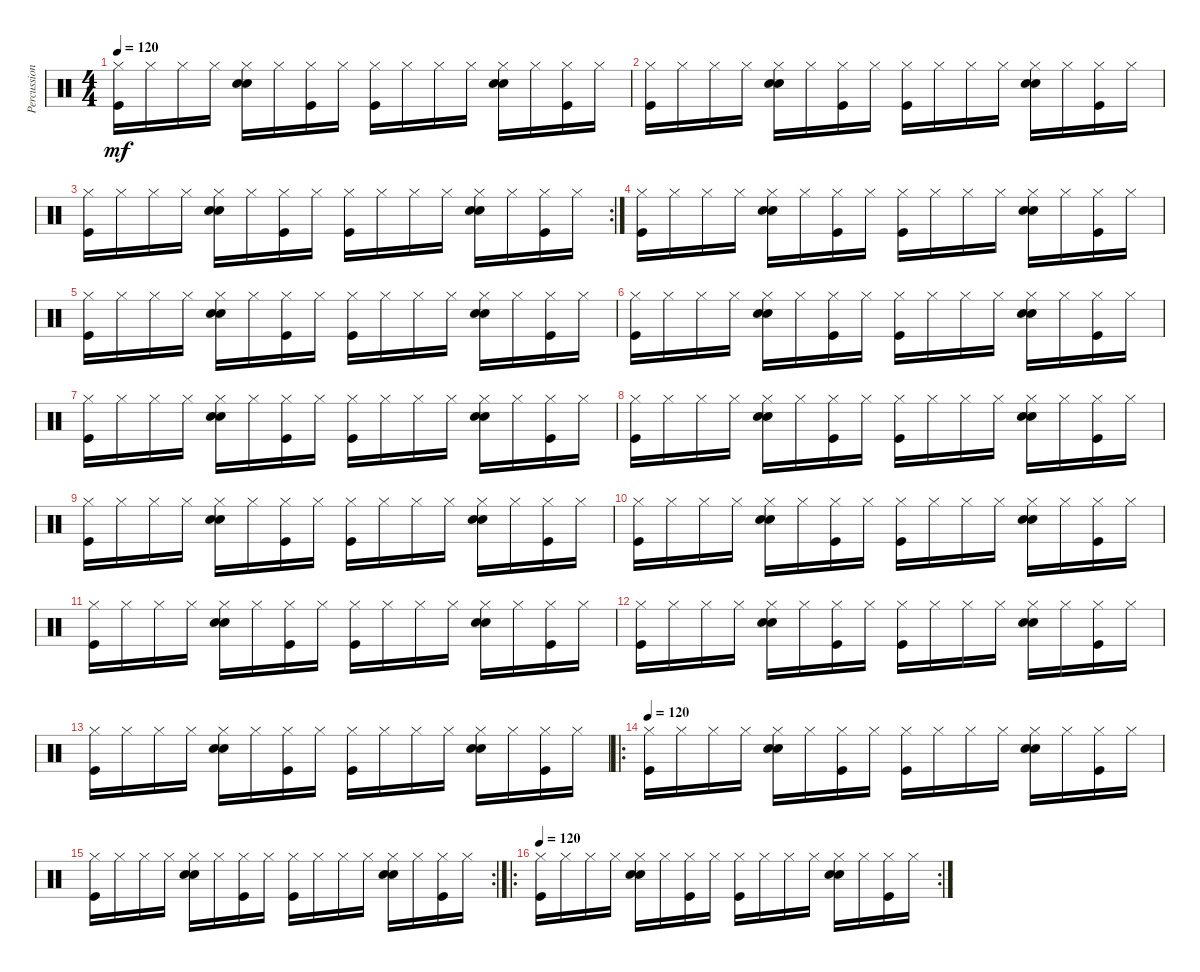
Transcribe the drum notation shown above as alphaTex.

\track ("Percussion" "Percussion") {instrument percussion}
\staff {score}
\articulation defaults
\ts (4 4)
\tempo 120
\clef neutral
\ks c
("Hi-Hat (closed)" "Kick (hit)").16{dy mf} "Hi-Hat (closed)".16 "Hi-Hat (closed)".16 "Hi-Hat (closed)".16 ("Hi-Hat (closed)" "Hand Clap (hit)" "Snare (hit) 2").16 "Hi-Hat (closed)".16 ("Hi-Hat (closed)" "Kick (hit)").16 "Hi-Hat (closed)".16 ("Hi-Hat (closed)" "Kick (hit)").16 "Hi-Hat (closed)".16 "Hi-Hat (closed)".16 "Hi-Hat (closed)".16 ("Hi-Hat (closed)" "Hand Clap (hit)" "Snare (hit) 2").16 "Hi-Hat (closed)".16 ("Hi-Hat (closed)" "Kick (hit)").16 "Hi-Hat (closed)".16 |
("Hi-Hat (closed)" "Kick (hit)").16 "Hi-Hat (closed)".16 "Hi-Hat (closed)".16 "Hi-Hat (closed)".16 ("Hi-Hat (closed)" "Hand Clap (hit)" "Snare (hit) 2").16 "Hi-Hat (closed)".16 ("Hi-Hat (closed)" "Kick (hit)").16 "Hi-Hat (closed)".16 ("Hi-Hat (closed)" "Kick (hit)").16 "Hi-Hat (closed)".16 "Hi-Hat (closed)".16 "Hi-Hat (closed)".16 ("Hi-Hat (closed)" "Hand Clap (hit)" "Snare (hit) 2").16 "Hi-Hat (closed)".16 ("Hi-Hat (closed)" "Kick (hit)").16 "Hi-Hat (closed)".16 |
\rc 2
("Hi-Hat (closed)" "Kick (hit)").16 "Hi-Hat (closed)".16 "Hi-Hat (closed)".16 "Hi-Hat (closed)".16 ("Hi-Hat (closed)" "Hand Clap (hit)" "Snare (hit) 2").16 "Hi-Hat (closed)".16 ("Hi-Hat (closed)" "Kick (hit)").16 "Hi-Hat (closed)".16 ("Hi-Hat (closed)" "Kick (hit)").16 "Hi-Hat (closed)".16 "Hi-Hat (closed)".16 "Hi-Hat (closed)".16 ("Hi-Hat (closed)" "Hand Clap (hit)" "Snare (hit) 2").16 "Hi-Hat (closed)".16 ("Hi-Hat (closed)" "Kick (hit)").16 "Hi-Hat (closed)".16 |
("Hi-Hat (closed)" "Kick (hit)").16 "Hi-Hat (closed)".16 "Hi-Hat (closed)".16 "Hi-Hat (closed)".16 ("Hi-Hat (closed)" "Hand Clap (hit)" "Snare (hit) 2").16 "Hi-Hat (closed)".16 ("Hi-Hat (closed)" "Kick (hit)").16 "Hi-Hat (closed)".16 ("Hi-Hat (closed)" "Kick (hit)").16 "Hi-Hat (closed)".16 "Hi-Hat (closed)".16 "Hi-Hat (closed)".16 ("Hi-Hat (closed)" "Hand Clap (hit)" "Snare (hit) 2").16 "Hi-Hat (closed)".16 ("Hi-Hat (closed)" "Kick (hit)").16 "Hi-Hat (closed)".16 |
("Hi-Hat (closed)" "Kick (hit)").16 "Hi-Hat (closed)".16 "Hi-Hat (closed)".16 "Hi-Hat (closed)".16 ("Hi-Hat (closed)" "Hand Clap (hit)" "Snare (hit) 2").16 "Hi-Hat (closed)".16 ("Hi-Hat (closed)" "Kick (hit)").16 "Hi-Hat (closed)".16 ("Hi-Hat (closed)" "Kick (hit)").16 "Hi-Hat (closed)".16 "Hi-Hat (closed)".16 "Hi-Hat (closed)".16 ("Hi-Hat (closed)" "Hand Clap (hit)" "Snare (hit) 2").16 "Hi-Hat (closed)".16 ("Hi-Hat (closed)" "Kick (hit)").16 "Hi-Hat (closed)".16 |
("Hi-Hat (closed)" "Kick (hit)").16 "Hi-Hat (closed)".16 "Hi-Hat (closed)".16 "Hi-Hat (closed)".16 ("Hi-Hat (closed)" "Hand Clap (hit)" "Snare (hit) 2").16 "Hi-Hat (closed)".16 ("Hi-Hat (closed)" "Kick (hit)").16 "Hi-Hat (closed)".16 ("Hi-Hat (closed)" "Kick (hit)").16 "Hi-Hat (closed)".16 "Hi-Hat (closed)".16 "Hi-Hat (closed)".16 ("Hi-Hat (closed)" "Hand Clap (hit)" "Snare (hit) 2").16 "Hi-Hat (closed)".16 ("Hi-Hat (closed)" "Kick (hit)").16 "Hi-Hat (closed)".16 |
("Hi-Hat (closed)" "Kick (hit)").16 "Hi-Hat (closed)".16 "Hi-Hat (closed)".16 "Hi-Hat (closed)".16 ("Hi-Hat (closed)" "Hand Clap (hit)" "Snare (hit) 2").16 "Hi-Hat (closed)".16 ("Hi-Hat (closed)" "Kick (hit)").16 "Hi-Hat (closed)".16 ("Hi-Hat (closed)" "Kick (hit)").16 "Hi-Hat (closed)".16 "Hi-Hat (closed)".16 "Hi-Hat (closed)".16 ("Hi-Hat (closed)" "Hand Clap (hit)" "Snare (hit) 2").16 "Hi-Hat (closed)".16 ("Hi-Hat (closed)" "Kick (hit)").16 "Hi-Hat (closed)".16 |
("Hi-Hat (closed)" "Kick (hit)").16 "Hi-Hat (closed)".16 "Hi-Hat (closed)".16 "Hi-Hat (closed)".16 ("Hi-Hat (closed)" "Hand Clap (hit)" "Snare (hit) 2").16 "Hi-Hat (closed)".16 ("Hi-Hat (closed)" "Kick (hit)").16 "Hi-Hat (closed)".16 ("Hi-Hat (closed)" "Kick (hit)").16 "Hi-Hat (closed)".16 "Hi-Hat (closed)".16 "Hi-Hat (closed)".16 ("Hi-Hat (closed)" "Hand Clap (hit)" "Snare (hit) 2").16 "Hi-Hat (closed)".16 ("Hi-Hat (closed)" "Kick (hit)").16 "Hi-Hat (closed)".16 |
("Hi-Hat (closed)" "Kick (hit)").16 "Hi-Hat (closed)".16 "Hi-Hat (closed)".16 "Hi-Hat (closed)".16 ("Hi-Hat (closed)" "Hand Clap (hit)" "Snare (hit) 2").16 "Hi-Hat (closed)".16 ("Hi-Hat (closed)" "Kick (hit)").16 "Hi-Hat (closed)".16 ("Hi-Hat (closed)" "Kick (hit)").16 "Hi-Hat (closed)".16 "Hi-Hat (closed)".16 "Hi-Hat (closed)".16 ("Hi-Hat (closed)" "Hand Clap (hit)" "Snare (hit) 2").16 "Hi-Hat (closed)".16 ("Hi-Hat (closed)" "Kick (hit)").16 "Hi-Hat (closed)".16 |
("Hi-Hat (closed)" "Kick (hit)").16 "Hi-Hat (closed)".16 "Hi-Hat (closed)".16 "Hi-Hat (closed)".16 ("Hi-Hat (closed)" "Hand Clap (hit)" "Snare (hit) 2").16 "Hi-Hat (closed)".16 ("Hi-Hat (closed)" "Kick (hit)").16 "Hi-Hat (closed)".16 ("Hi-Hat (closed)" "Kick (hit)").16 "Hi-Hat (closed)".16 "Hi-Hat (closed)".16 "Hi-Hat (closed)".16 ("Hi-Hat (closed)" "Hand Clap (hit)" "Snare (hit) 2").16 "Hi-Hat (closed)".16 ("Hi-Hat (closed)" "Kick (hit)").16 "Hi-Hat (closed)".16 |
("Hi-Hat (closed)" "Kick (hit)").16 "Hi-Hat (closed)".16 "Hi-Hat (closed)".16 "Hi-Hat (closed)".16 ("Hi-Hat (closed)" "Hand Clap (hit)" "Snare (hit) 2").16 "Hi-Hat (closed)".16 ("Hi-Hat (closed)" "Kick (hit)").16 "Hi-Hat (closed)".16 ("Hi-Hat (closed)" "Kick (hit)").16 "Hi-Hat (closed)".16 "Hi-Hat (closed)".16 "Hi-Hat (closed)".16 ("Hi-Hat (closed)" "Hand Clap (hit)" "Snare (hit) 2").16 "Hi-Hat (closed)".16 ("Hi-Hat (closed)" "Kick (hit)").16 "Hi-Hat (closed)".16 |
("Hi-Hat (closed)" "Kick (hit)").16 "Hi-Hat (closed)".16 "Hi-Hat (closed)".16 "Hi-Hat (closed)".16 ("Hi-Hat (closed)" "Hand Clap (hit)" "Snare (hit) 2").16 "Hi-Hat (closed)".16 ("Hi-Hat (closed)" "Kick (hit)").16 "Hi-Hat (closed)".16 ("Hi-Hat (closed)" "Kick (hit)").16 "Hi-Hat (closed)".16 "Hi-Hat (closed)".16 "Hi-Hat (closed)".16 ("Hi-Hat (closed)" "Hand Clap (hit)" "Snare (hit) 2").16 "Hi-Hat (closed)".16 ("Hi-Hat (closed)" "Kick (hit)").16 "Hi-Hat (closed)".16 |
("Hi-Hat (closed)" "Kick (hit)").16 "Hi-Hat (closed)".16 "Hi-Hat (closed)".16 "Hi-Hat (closed)".16 ("Hi-Hat (closed)" "Hand Clap (hit)" "Snare (hit) 2").16 "Hi-Hat (closed)".16 ("Hi-Hat (closed)" "Kick (hit)").16 "Hi-Hat (closed)".16 ("Hi-Hat (closed)" "Kick (hit)").16 "Hi-Hat (closed)".16 "Hi-Hat (closed)".16 "Hi-Hat (closed)".16 ("Hi-Hat (closed)" "Hand Clap (hit)" "Snare (hit) 2").16 "Hi-Hat (closed)".16 ("Hi-Hat (closed)" "Kick (hit)").16 "Hi-Hat (closed)".16 |
\ro
\tempo 120
("Hi-Hat (closed)" "Kick (hit)").16 "Hi-Hat (closed)".16 "Hi-Hat (closed)".16 "Hi-Hat (closed)".16 ("Hi-Hat (closed)" "Hand Clap (hit)" "Snare (hit) 2").16 "Hi-Hat (closed)".16 ("Hi-Hat (closed)" "Kick (hit)").16 "Hi-Hat (closed)".16 ("Hi-Hat (closed)" "Kick (hit)").16 "Hi-Hat (closed)".16 "Hi-Hat (closed)".16 "Hi-Hat (closed)".16 ("Hi-Hat (closed)" "Hand Clap (hit)" "Snare (hit) 2").16 "Hi-Hat (closed)".16 ("Hi-Hat (closed)" "Kick (hit)").16 "Hi-Hat (closed)".16 |
\rc 2
("Hi-Hat (closed)" "Kick (hit)").16 "Hi-Hat (closed)".16 "Hi-Hat (closed)".16 "Hi-Hat (closed)".16 ("Hi-Hat (closed)" "Hand Clap (hit)" "Snare (hit) 2").16 "Hi-Hat (closed)".16 ("Hi-Hat (closed)" "Kick (hit)").16 "Hi-Hat (closed)".16 ("Hi-Hat (closed)" "Kick (hit)").16 "Hi-Hat (closed)".16 "Hi-Hat (closed)".16 "Hi-Hat (closed)".16 ("Hi-Hat (closed)" "Hand Clap (hit)" "Snare (hit) 2").16 "Hi-Hat (closed)".16 ("Hi-Hat (closed)" "Kick (hit)").16 "Hi-Hat (closed)".16 |
\ro
\rc 2
\tempo 120
("Hi-Hat (closed)" "Kick (hit)").16 "Hi-Hat (closed)".16 "Hi-Hat (closed)".16 "Hi-Hat (closed)".16 ("Hi-Hat (closed)" "Hand Clap (hit)" "Snare (hit) 2").16 "Hi-Hat (closed)".16 ("Hi-Hat (closed)" "Kick (hit)").16 "Hi-Hat (closed)".16 ("Hi-Hat (closed)" "Kick (hit)").16 "Hi-Hat (closed)".16 "Hi-Hat (closed)".16 "Hi-Hat (closed)".16 ("Hi-Hat (closed)" "Hand Clap (hit)" "Snare (hit) 2").16 "Hi-Hat (closed)".16 ("Hi-Hat (closed)" "Kick (hit)").16 "Hi-Hat (closed)".16
